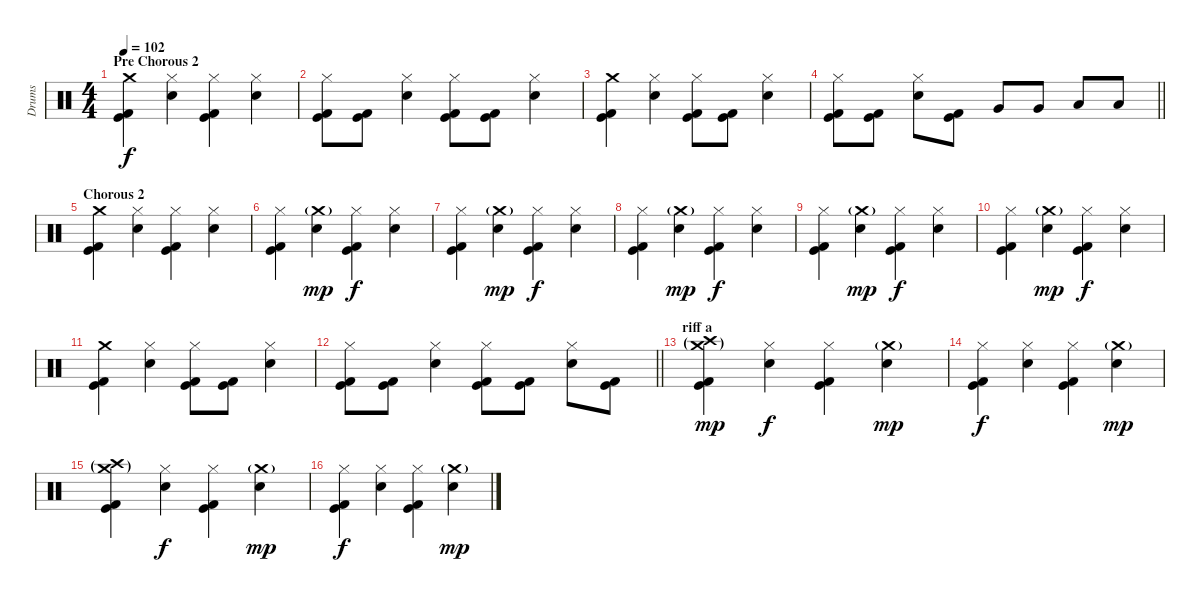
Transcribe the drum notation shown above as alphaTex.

\track ("Drums" "Drums") {instrument percussion}
\staff {score}
\articulation defaults
\ts (4 4)
\section ("" "Pre Chorous 2")
\tempo 102
\clef neutral
\ks c
("Crash medium (hit)" "Kick (hit)" "Kick (hit) 2").4{dy f} ("Hi-Hat (closed)" "Electric Snare (hit)").4 ("Hi-Hat (closed)" "Kick (hit)" "Kick (hit) 2").4 ("Hi-Hat (closed)" "Electric Snare (hit)").4 |
("Hi-Hat (closed)" "Kick (hit)" "Kick (hit) 2").8 ("Kick (hit)" "Kick (hit) 2").8 ("Hi-Hat (closed)" "Electric Snare (hit)").4 ("Hi-Hat (closed)" "Kick (hit)" "Kick (hit) 2").8 ("Kick (hit)" "Kick (hit) 2").8 ("Hi-Hat (closed)" "Electric Snare (hit)").4 |
("Crash medium (hit)" "Kick (hit)" "Kick (hit) 2").4 ("Hi-Hat (closed)" "Electric Snare (hit)").4 ("Hi-Hat (closed)" "Kick (hit)" "Kick (hit) 2").8 ("Kick (hit)" "Kick (hit) 2").8 ("Hi-Hat (closed)" "Electric Snare (hit)").4 |
\barLineRight lightlight
("Hi-Hat (closed)" "Kick (hit)" "Kick (hit) 2").8 ("Kick (hit)" "Kick (hit) 2").8 ("Hi-Hat (closed)" "Electric Snare (hit)").8 ("Kick (hit)" "Kick (hit) 2").8 "Very Low Tom (hit)".8 "Very Low Tom (hit)".8 "Low Tom (hit)".8 "Low Tom (hit)".8 |
\section ("" "Chorous 2")
("Crash medium (hit)" "Kick (hit)" "Kick (hit) 2").4 ("Hi-Hat (closed)" "Electric Snare (hit)").4 ("Hi-Hat (closed)" "Kick (hit)" "Kick (hit) 2").4 ("Hi-Hat (closed)" "Electric Snare (hit)").4 |
("Hi-Hat (closed)" "Kick (hit)" "Kick (hit) 2").4 ("Crash medium (hit)"{g} "Electric Snare (hit)").4{dy mp} ("Hi-Hat (closed)" "Kick (hit)" "Kick (hit) 2").4{dy f} ("Hi-Hat (closed)" "Electric Snare (hit)").4 |
("Hi-Hat (closed)" "Kick (hit)" "Kick (hit) 2").4 ("Crash medium (hit)"{g} "Electric Snare (hit)").4{dy mp} ("Hi-Hat (closed)" "Kick (hit)" "Kick (hit) 2").4{dy f} ("Hi-Hat (closed)" "Electric Snare (hit)").4 |
("Hi-Hat (closed)" "Kick (hit)" "Kick (hit) 2").4 ("Crash medium (hit)"{g} "Electric Snare (hit)").4{dy mp} ("Hi-Hat (closed)" "Kick (hit)" "Kick (hit) 2").4{dy f} ("Hi-Hat (closed)" "Electric Snare (hit)").4 |
("Hi-Hat (closed)" "Kick (hit)" "Kick (hit) 2").4 ("Crash medium (hit)"{g} "Electric Snare (hit)").4{dy mp} ("Hi-Hat (closed)" "Kick (hit)" "Kick (hit) 2").4{dy f} ("Hi-Hat (closed)" "Electric Snare (hit)").4 |
("Hi-Hat (closed)" "Kick (hit)" "Kick (hit) 2").4 ("Crash medium (hit)"{g} "Electric Snare (hit)").4{dy mp} ("Hi-Hat (closed)" "Kick (hit)" "Kick (hit) 2").4{dy f} ("Hi-Hat (closed)" "Electric Snare (hit)").4 |
("Crash medium (hit)" "Kick (hit)" "Kick (hit) 2").4 ("Hi-Hat (closed)" "Electric Snare (hit)").4 ("Hi-Hat (closed)" "Kick (hit)" "Kick (hit) 2").8 ("Kick (hit)" "Kick (hit) 2").8 ("Hi-Hat (closed)" "Electric Snare (hit)").4 |
\barLineRight lightlight
("Hi-Hat (closed)" "Kick (hit)" "Kick (hit) 2").8 ("Kick (hit)" "Kick (hit) 2").8 ("Hi-Hat (closed)" "Electric Snare (hit)").4 ("Hi-Hat (closed)" "Kick (hit)" "Kick (hit) 2").8 ("Kick (hit)" "Kick (hit) 2").8 ("Hi-Hat (closed)" "Electric Snare (hit)").8 ("Kick (hit)" "Kick (hit) 2").8 |
\section ("" "riff a")
("Crash high (hit)"{g} "Crash medium (hit)"{g} "Kick (hit)" "Kick (hit) 2").4{dy mp} ("Hi-Hat (closed)" "Electric Snare (hit)").4{dy f} ("Hi-Hat (closed)" "Kick (hit)" "Kick (hit) 2").4 ("Crash medium (hit)"{g} "Electric Snare (hit)").4{dy mp} |
("Hi-Hat (closed)" "Kick (hit)" "Kick (hit) 2").4{dy f} ("Hi-Hat (closed)" "Electric Snare (hit)").4 ("Hi-Hat (closed)" "Kick (hit)" "Kick (hit) 2").4 ("Crash medium (hit)"{g} "Electric Snare (hit)").4{dy mp} |
("Crash high (hit)"{g} "Crash medium (hit)"{g} "Kick (hit)" "Kick (hit) 2").4 ("Hi-Hat (closed)" "Electric Snare (hit)").4{dy f} ("Hi-Hat (closed)" "Kick (hit)" "Kick (hit) 2").4 ("Crash medium (hit)"{g} "Electric Snare (hit)").4{dy mp} |
("Hi-Hat (closed)" "Kick (hit)" "Kick (hit) 2").4{dy f} ("Hi-Hat (closed)" "Electric Snare (hit)").4 ("Hi-Hat (closed)" "Kick (hit)" "Kick (hit) 2").4 ("Crash medium (hit)"{g} "Electric Snare (hit)").4{dy mp}
